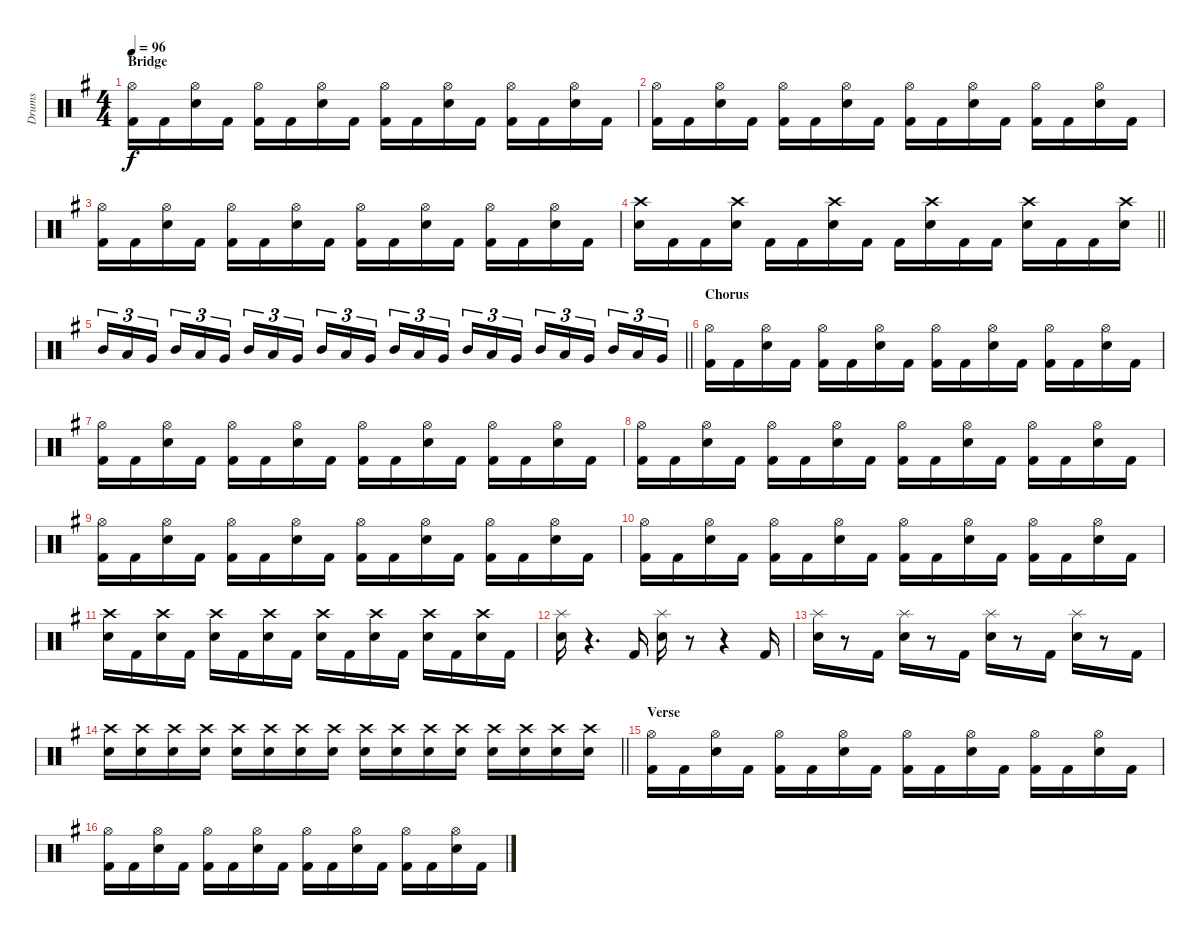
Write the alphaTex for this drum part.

\track ("Drums" "Drums") {instrument percussion}
\staff {score}
\articulation defaults
\ts (4 4)
\section ("" "Bridge")
\tempo 96
\clef neutral
\ks g
("Hi-Hat (open)" "Kick (hit) 2").16{dy f} "Kick (hit) 2".16 ("Hi-Hat (open)" "Electric Snare (hit)").16 "Kick (hit) 2".16 ("Hi-Hat (open)" "Kick (hit) 2").16 "Kick (hit) 2".16 ("Hi-Hat (open)" "Electric Snare (hit)").16 "Kick (hit) 2".16 ("Hi-Hat (open)" "Kick (hit) 2").16 "Kick (hit) 2".16 ("Hi-Hat (open)" "Electric Snare (hit)").16 "Kick (hit) 2".16 ("Hi-Hat (open)" "Kick (hit) 2").16 "Kick (hit) 2".16 ("Hi-Hat (open)" "Electric Snare (hit)").16 "Kick (hit) 2".16 |
("Hi-Hat (open)" "Kick (hit) 2").16 "Kick (hit) 2".16 ("Hi-Hat (open)" "Electric Snare (hit)").16 "Kick (hit) 2".16 ("Hi-Hat (open)" "Kick (hit) 2").16 "Kick (hit) 2".16 ("Hi-Hat (open)" "Electric Snare (hit)").16 "Kick (hit) 2".16 ("Hi-Hat (open)" "Kick (hit) 2").16 "Kick (hit) 2".16 ("Hi-Hat (open)" "Electric Snare (hit)").16 "Kick (hit) 2".16 ("Hi-Hat (open)" "Kick (hit) 2").16 "Kick (hit) 2".16 ("Hi-Hat (open)" "Electric Snare (hit)").16 "Kick (hit) 2".16 |
("Hi-Hat (open)" "Kick (hit) 2").16 "Kick (hit) 2".16 ("Hi-Hat (open)" "Electric Snare (hit)").16 "Kick (hit) 2".16 ("Hi-Hat (open)" "Kick (hit) 2").16 "Kick (hit) 2".16 ("Hi-Hat (open)" "Electric Snare (hit)").16 "Kick (hit) 2".16 ("Hi-Hat (open)" "Kick (hit) 2").16 "Kick (hit) 2".16 ("Hi-Hat (open)" "Electric Snare (hit)").16 "Kick (hit) 2".16 ("Hi-Hat (open)" "Kick (hit) 2").16 "Kick (hit) 2".16 ("Hi-Hat (open)" "Electric Snare (hit)").16 "Kick (hit) 2".16 |
\barLineRight lightlight
("Crash high (hit)" "Electric Snare (hit)").16 "Kick (hit) 2".16 "Kick (hit) 2".16 ("Crash high (hit)" "Electric Snare (hit)").16 "Kick (hit) 2".16 "Kick (hit) 2".16 ("Crash high (hit)" "Electric Snare (hit)").16 "Kick (hit) 2".16 "Kick (hit) 2".16 ("Crash high (hit)" "Electric Snare (hit)").16 "Kick (hit) 2".16 "Kick (hit) 2".16 ("Crash high (hit)" "Electric Snare (hit)").16 "Kick (hit) 2".16 "Kick (hit) 2".16 ("Crash high (hit)" "Electric Snare (hit)").16 |
\barLineRight lightlight "Mid Tom (hit)".16{tu (3 2)} "Low Tom (hit)".16{tu (3 2)} "Very Low Tom (hit)".16{tu (3 2) beam splitsecondary} "Mid Tom (hit)".16{tu (3 2)} "Low Tom (hit)".16{tu (3 2)} "Very Low Tom (hit)".16{tu (3 2)} "Mid Tom (hit)".16{tu (3 2)} "Low Tom (hit)".16{tu (3 2)} "Very Low Tom (hit)".16{tu (3 2) beam splitsecondary} "Mid Tom (hit)".16{tu (3 2)} "Low Tom (hit)".16{tu (3 2)} "Very Low Tom (hit)".16{tu (3 2)} "Mid Tom (hit)".16{tu (3 2)} "Low Tom (hit)".16{tu (3 2)} "Very Low Tom (hit)".16{tu (3 2) beam splitsecondary} "Mid Tom (hit)".16{tu (3 2)} "Low Tom (hit)".16{tu (3 2)} "Very Low Tom (hit)".16{tu (3 2)} "Mid Tom (hit)".16{tu (3 2)} "Low Tom (hit)".16{tu (3 2)} "Very Low Tom (hit)".16{tu (3 2) beam splitsecondary} "Mid Tom (hit)".16{tu (3 2)} "Low Tom (hit)".16{tu (3 2)} "Very Low Tom (hit)".16{tu (3 2)}
|
\section ("" "Chorus")
("Hi-Hat (open)" "Kick (hit) 2").16 "Kick (hit) 2".16 ("Hi-Hat (open)" "Electric Snare (hit)").16 "Kick (hit) 2".16 ("Hi-Hat (open)" "Kick (hit) 2").16 "Kick (hit) 2".16 ("Hi-Hat (open)" "Electric Snare (hit)").16 "Kick (hit) 2".16 ("Hi-Hat (open)" "Kick (hit) 2").16 "Kick (hit) 2".16 ("Hi-Hat (open)" "Electric Snare (hit)").16 "Kick (hit) 2".16 ("Hi-Hat (open)" "Kick (hit) 2").16 "Kick (hit) 2".16 ("Hi-Hat (open)" "Electric Snare (hit)").16 "Kick (hit) 2".16 |
("Hi-Hat (open)" "Kick (hit) 2").16 "Kick (hit) 2".16 ("Hi-Hat (open)" "Electric Snare (hit)").16 "Kick (hit) 2".16 ("Hi-Hat (open)" "Kick (hit) 2").16 "Kick (hit) 2".16 ("Hi-Hat (open)" "Electric Snare (hit)").16 "Kick (hit) 2".16 ("Hi-Hat (open)" "Kick (hit) 2").16 "Kick (hit) 2".16 ("Hi-Hat (open)" "Electric Snare (hit)").16 "Kick (hit) 2".16 ("Hi-Hat (open)" "Kick (hit) 2").16 "Kick (hit) 2".16 ("Hi-Hat (open)" "Electric Snare (hit)").16 "Kick (hit) 2".16 |
("Hi-Hat (open)" "Kick (hit) 2").16 "Kick (hit) 2".16 ("Hi-Hat (open)" "Electric Snare (hit)").16 "Kick (hit) 2".16 ("Hi-Hat (open)" "Kick (hit) 2").16 "Kick (hit) 2".16 ("Hi-Hat (open)" "Electric Snare (hit)").16 "Kick (hit) 2".16 ("Hi-Hat (open)" "Kick (hit) 2").16 "Kick (hit) 2".16 ("Hi-Hat (open)" "Electric Snare (hit)").16 "Kick (hit) 2".16 ("Hi-Hat (open)" "Kick (hit) 2").16 "Kick (hit) 2".16 ("Hi-Hat (open)" "Electric Snare (hit)").16 "Kick (hit) 2".16 |
("Hi-Hat (open)" "Kick (hit) 2").16 "Kick (hit) 2".16 ("Hi-Hat (open)" "Electric Snare (hit)").16 "Kick (hit) 2".16 ("Hi-Hat (open)" "Kick (hit) 2").16 "Kick (hit) 2".16 ("Hi-Hat (open)" "Electric Snare (hit)").16 "Kick (hit) 2".16 ("Hi-Hat (open)" "Kick (hit) 2").16 "Kick (hit) 2".16 ("Hi-Hat (open)" "Electric Snare (hit)").16 "Kick (hit) 2".16 ("Hi-Hat (open)" "Kick (hit) 2").16 "Kick (hit) 2".16 ("Hi-Hat (open)" "Electric Snare (hit)").16 "Kick (hit) 2".16 |
("Hi-Hat (open)" "Kick (hit) 2").16 "Kick (hit) 2".16 ("Hi-Hat (open)" "Electric Snare (hit)").16 "Kick (hit) 2".16 ("Hi-Hat (open)" "Kick (hit) 2").16 "Kick (hit) 2".16 ("Hi-Hat (open)" "Electric Snare (hit)").16 "Kick (hit) 2".16 ("Hi-Hat (open)" "Kick (hit) 2").16 "Kick (hit) 2".16 ("Hi-Hat (open)" "Electric Snare (hit)").16 "Kick (hit) 2".16 ("Hi-Hat (open)" "Kick (hit) 2").16 "Kick (hit) 2".16 ("Hi-Hat (open)" "Electric Snare (hit)").16 "Kick (hit) 2".16 |
("Crash high (hit)" "Electric Snare (hit)").16 "Kick (hit) 2".16 ("Crash high (hit)" "Electric Snare (hit)").16 "Kick (hit) 2".16 ("Crash high (hit)" "Electric Snare (hit)").16 "Kick (hit) 2".16 ("Crash high (hit)" "Electric Snare (hit)").16 "Kick (hit) 2".16 ("Crash high (hit)" "Electric Snare (hit)").16 "Kick (hit) 2".16 ("Crash high (hit)" "Electric Snare (hit)").16 "Kick (hit) 2".16 ("Crash high (hit)" "Electric Snare (hit)").16 "Kick (hit) 2".16 ("Crash high (hit)" "Electric Snare (hit)").16 "Kick (hit) 2".16 |
("Splash (hit)" "Electric Snare (hit)").16 r.4{d} "Kick (hit) 2".16 ("Splash (hit)" "Electric Snare (hit)").16 r.8 r.4 "Kick (hit) 2".16 |
("Splash (hit)" "Electric Snare (hit)").16 r.8 "Kick (hit) 2".16 ("Splash (hit)" "Electric Snare (hit)").16 r.8 "Kick (hit) 2".16 ("Splash (hit)" "Electric Snare (hit)").16 r.8 "Kick (hit) 2".16 ("Splash (hit)" "Electric Snare (hit)").16 r.8 "Kick (hit) 2".16 |
\barLineRight lightlight
("Crash high (hit)" "Electric Snare (hit)").16 ("Crash high (hit)" "Electric Snare (hit)").16 ("Crash high (hit)" "Electric Snare (hit)").16 ("Crash high (hit)" "Electric Snare (hit)").16 ("Crash high (hit)" "Electric Snare (hit)").16 ("Crash high (hit)" "Electric Snare (hit)").16 ("Crash high (hit)" "Electric Snare (hit)").16 ("Crash high (hit)" "Electric Snare (hit)").16 ("Crash high (hit)" "Electric Snare (hit)").16 ("Crash high (hit)" "Electric Snare (hit)").16 ("Crash high (hit)" "Electric Snare (hit)").16 ("Crash high (hit)" "Electric Snare (hit)").16 ("Crash high (hit)" "Electric Snare (hit)").16 ("Crash high (hit)" "Electric Snare (hit)").16 ("Crash high (hit)" "Electric Snare (hit)").16 ("Crash high (hit)" "Electric Snare (hit)").16 |
\section ("" "Verse")
("Hi-Hat (open)" "Kick (hit) 2").16 "Kick (hit) 2".16 ("Hi-Hat (open)" "Electric Snare (hit)").16 "Kick (hit) 2".16 ("Hi-Hat (open)" "Kick (hit) 2").16 "Kick (hit) 2".16 ("Hi-Hat (open)" "Electric Snare (hit)").16 "Kick (hit) 2".16 ("Hi-Hat (open)" "Kick (hit) 2").16 "Kick (hit) 2".16 ("Hi-Hat (open)" "Electric Snare (hit)").16 "Kick (hit) 2".16 ("Hi-Hat (open)" "Kick (hit) 2").16 "Kick (hit) 2".16 ("Hi-Hat (open)" "Electric Snare (hit)").16 "Kick (hit) 2".16 |
("Hi-Hat (open)" "Kick (hit) 2").16 "Kick (hit) 2".16 ("Hi-Hat (open)" "Electric Snare (hit)").16 "Kick (hit) 2".16 ("Hi-Hat (open)" "Kick (hit) 2").16 "Kick (hit) 2".16 ("Hi-Hat (open)" "Electric Snare (hit)").16 "Kick (hit) 2".16 ("Hi-Hat (open)" "Kick (hit) 2").16 "Kick (hit) 2".16 ("Hi-Hat (open)" "Electric Snare (hit)").16 "Kick (hit) 2".16 ("Hi-Hat (open)" "Kick (hit) 2").16 "Kick (hit) 2".16 ("Hi-Hat (open)" "Electric Snare (hit)").16 "Kick (hit) 2".16
